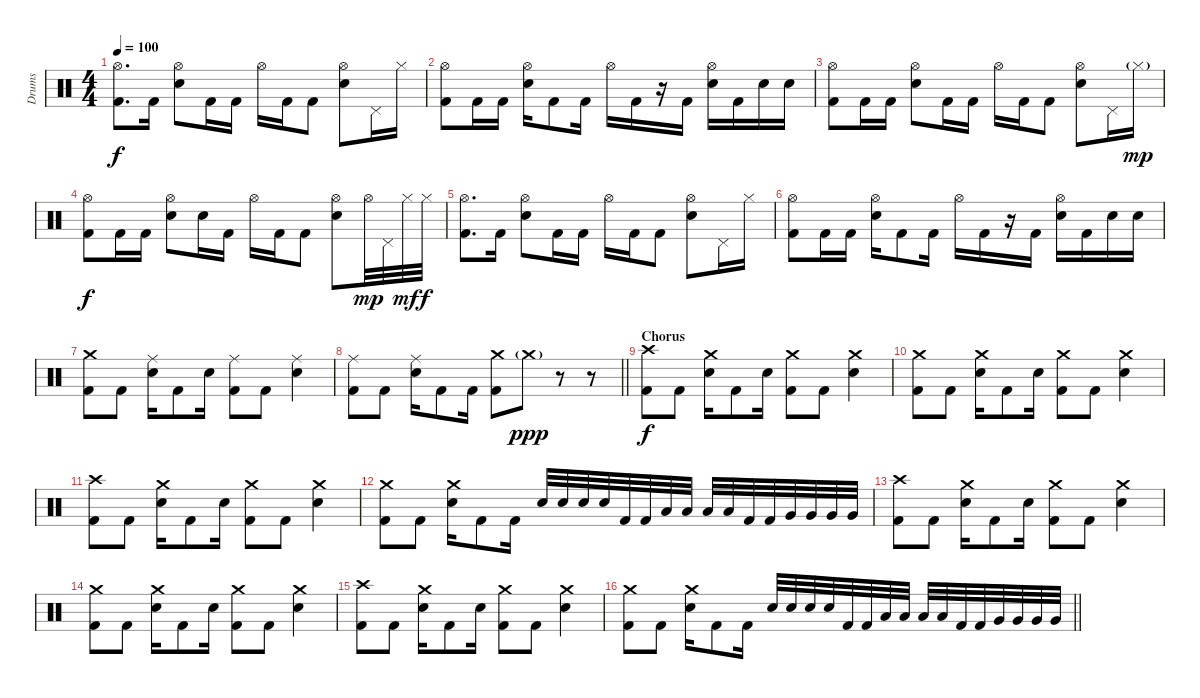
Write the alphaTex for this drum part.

\track ("Drums" "Drums") {instrument percussion}
\staff {score}
\articulation defaults
\ts (4 4)
\tempo 100
\clef neutral
\ks c
("Hi-Hat (open)" "Kick (hit) 2").8{d dy f} "Kick (hit) 2".16 ("Hi-Hat (open)" "Electric Snare (hit)").8 "Kick (hit) 2".16 "Kick (hit) 2".16 "Hi-Hat (open)".16 "Kick (hit) 2".16 "Kick (hit) 2".8 ("Hi-Hat (open)" "Electric Snare (hit)").8 "Pedal Hi-Hat (hit)".16 "Hi-Hat (closed)".16 |
("Hi-Hat (open)" "Kick (hit) 2").8 "Kick (hit) 2".16 "Kick (hit) 2".16 ("Hi-Hat (open)" "Electric Snare (hit)").16 "Kick (hit) 2".8 "Kick (hit) 2".16 "Hi-Hat (open)".16 "Kick (hit) 2".16 r.16 "Kick (hit) 2".16 ("Hi-Hat (open)" "Electric Snare (hit)").16 "Kick (hit) 2".16 "Electric Snare (hit)".16 "Electric Snare (hit)".16 |
("Hi-Hat (open)" "Kick (hit) 2").8 "Kick (hit) 2".16 "Kick (hit) 2".16 ("Hi-Hat (open)" "Electric Snare (hit)").8 "Kick (hit) 2".16 "Kick (hit) 2".16 "Hi-Hat (open)".16 "Kick (hit) 2".16 "Kick (hit) 2".8 ("Hi-Hat (open)" "Electric Snare (hit)").8 "Pedal Hi-Hat (hit)".16 "Hi-Hat (closed)"{g}.16{dy mp} |
("Hi-Hat (open)" "Kick (hit) 2").8{dy f} "Kick (hit) 2".16 "Kick (hit) 2".16 ("Hi-Hat (open)" "Electric Snare (hit)").8 "Electric Snare (hit)".16 "Kick (hit) 2".16 "Hi-Hat (open)".16 "Kick (hit) 2".16 "Kick (hit) 2".8 ("Hi-Hat (open)" "Electric Snare (hit)").8 "Hi-Hat (open)".32{dy mp} "Pedal Hi-Hat (hit)".32 "Hi-Hat (closed)".32{dy mf} "Hi-Hat (closed)".32{dy f} |
("Hi-Hat (open)" "Kick (hit) 2").8{d} "Kick (hit) 2".16 ("Hi-Hat (open)" "Electric Snare (hit)").8 "Kick (hit) 2".16 "Kick (hit) 2".16 "Hi-Hat (open)".16 "Kick (hit) 2".16 "Kick (hit) 2".8 ("Hi-Hat (open)" "Electric Snare (hit)").8 "Pedal Hi-Hat (hit)".16 "Hi-Hat (closed)".16 |
("Hi-Hat (open)" "Kick (hit) 2").8 "Kick (hit) 2".16 "Kick (hit) 2".16 ("Hi-Hat (open)" "Electric Snare (hit)").16 "Kick (hit) 2".8 "Kick (hit) 2".16 "Hi-Hat (open)".16 "Kick (hit) 2".16 r.16 "Kick (hit) 2".16 ("Hi-Hat (open)" "Electric Snare (hit)").16 "Kick (hit) 2".16 "Electric Snare (hit)".16 "Electric Snare (hit)".16 |
("Crash medium (hit)" "Kick (hit) 2").8 "Kick (hit) 2".8 ("Ride (middle)" "Electric Snare (hit)").16 "Kick (hit) 2".8 "Electric Snare (hit)".16 ("Ride (middle)" "Kick (hit) 2").8 "Kick (hit) 2".8 ("Ride (middle)" "Electric Snare (hit)").4 |
\barLineRight lightlight
("Ride (middle)" "Kick (hit) 2").8 "Kick (hit) 2".8 ("Ride (middle)" "Electric Snare (hit)").16 "Kick (hit) 2".8 "Kick (hit) 2".16 ("Crash medium (hit)" "Kick (hit) 2").8 "Crash medium (hit)"{g}.8{dy ppp} r.8 r.8 |
\section ("" "Chorus")
("Crash high (hit)" "Kick (hit) 2").8{dy f} "Kick (hit) 2".8 ("Crash medium (hit)" "Electric Snare (hit)").16 "Kick (hit) 2".8 "Electric Snare (hit)".16 ("Crash medium (hit)" "Kick (hit) 2").8 "Kick (hit) 2".8 ("Crash medium (hit)" "Electric Snare (hit)").4 |
("Crash medium (hit)" "Kick (hit) 2").8 "Kick (hit) 2".8 ("Crash medium (hit)" "Electric Snare (hit)").16 "Kick (hit) 2".8 "Electric Snare (hit)".16 ("Crash medium (hit)" "Kick (hit) 2").8 "Kick (hit) 2".8 ("Crash medium (hit)" "Electric Snare (hit)").4 |
("Crash high (hit)" "Kick (hit) 2").8 "Kick (hit) 2".8 ("Crash medium (hit)" "Electric Snare (hit)").16 "Kick (hit) 2".8 "Electric Snare (hit)".16 ("Crash medium (hit)" "Kick (hit) 2").8 "Kick (hit) 2".8 ("Crash medium (hit)" "Electric Snare (hit)").4 |
("Crash medium (hit)" "Kick (hit) 2").8 "Kick (hit) 2".8 ("Crash medium (hit)" "Electric Snare (hit)").16 "Kick (hit) 2".8 "Kick (hit) 2".16 "Electric Snare (hit)".32 "Electric Snare (hit)".32 "Electric Snare (hit)".32 "Electric Snare (hit)".32 "Kick (hit) 2".32 "Kick (hit) 2".32 "Low Tom (hit)".32 "Low Tom (hit)".32 "Low Tom (hit)".32 "Low Tom (hit)".32 "Kick (hit) 2".32 "Kick (hit) 2".32 "Very Low Tom (hit)".32 "Very Low Tom (hit)".32 "Very Low Tom (hit)".32 "Very Low Tom (hit)".32 |
("Crash high (hit)" "Kick (hit) 2").8 "Kick (hit) 2".8 ("Crash medium (hit)" "Electric Snare (hit)").16 "Kick (hit) 2".8 "Electric Snare (hit)".16 ("Crash medium (hit)" "Kick (hit) 2").8 "Kick (hit) 2".8 ("Crash medium (hit)" "Electric Snare (hit)").4 |
("Crash medium (hit)" "Kick (hit) 2").8 "Kick (hit) 2".8 ("Crash medium (hit)" "Electric Snare (hit)").16 "Kick (hit) 2".8 "Electric Snare (hit)".16 ("Crash medium (hit)" "Kick (hit) 2").8 "Kick (hit) 2".8 ("Crash medium (hit)" "Electric Snare (hit)").4 |
("Crash high (hit)" "Kick (hit) 2").8 "Kick (hit) 2".8 ("Crash medium (hit)" "Electric Snare (hit)").16 "Kick (hit) 2".8 "Electric Snare (hit)".16 ("Crash medium (hit)" "Kick (hit) 2").8 "Kick (hit) 2".8 ("Crash medium (hit)" "Electric Snare (hit)").4 |
\barLineRight lightlight
("Crash medium (hit)" "Kick (hit) 2").8 "Kick (hit) 2".8 ("Crash medium (hit)" "Electric Snare (hit)").16 "Kick (hit) 2".8 "Kick (hit) 2".16 "Electric Snare (hit)".32 "Electric Snare (hit)".32 "Electric Snare (hit)".32 "Electric Snare (hit)".32 "Kick (hit) 2".32 "Kick (hit) 2".32 "Low Tom (hit)".32 "Low Tom (hit)".32 "Low Tom (hit)".32 "Low Tom (hit)".32 "Kick (hit) 2".32 "Kick (hit) 2".32 "Very Low Tom (hit)".32 "Very Low Tom (hit)".32 "Very Low Tom (hit)".32 "Very Low Tom (hit)".32
